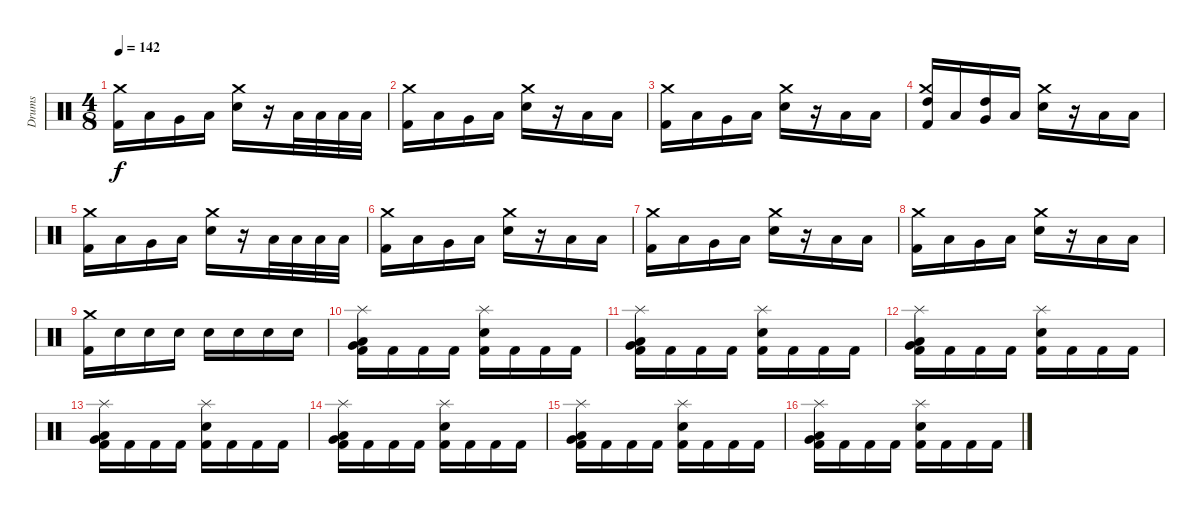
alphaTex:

\track ("Drums" "Drums") {instrument percussion}
\staff {score}
\articulation defaults
\ts (4 8)
\tempo 142
\clef neutral
\ks c
("Kick (hit) 2" "Crash medium (hit)").16{dy f} "Low Tom (hit)".16 "Very Low Tom (hit)".16 "Low Floor Tom (hit)".16 ("Electric Snare (hit)" "Crash medium (hit)").16 r.16 "Low Tom (hit)".32 "Low Tom (hit)".32 "Low Tom (hit)".32 "Low Tom (hit)".32 |
("Kick (hit) 2" "Crash medium (hit)").16 "Low Tom (hit)".16 "Very Low Tom (hit)".16 "Low Floor Tom (hit)".16 ("Electric Snare (hit)" "Crash medium (hit)").16 r.16 "Low Floor Tom (hit)".16 "Low Tom (hit)".16 |
("Kick (hit) 2" "Crash medium (hit)").16 "Low Tom (hit)".16 "Very Low Tom (hit)".16 "Low Floor Tom (hit)".16 ("Electric Snare (hit)" "Crash medium (hit)").16 r.16 "Low Floor Tom (hit)".16 "Low Tom (hit)".16 |
("Kick (hit) 2" "Crash medium (hit)" "High Tom (hit)").16 "Low Tom (hit)".16 ("Very Low Tom (hit)" "High Tom (hit)").16 "Low Floor Tom (hit)".16 ("Electric Snare (hit)" "Crash medium (hit)").16 r.16 "Low Floor Tom (hit)".16 "Low Tom (hit)".16 |
("Kick (hit) 2" "Crash medium (hit)").16 "Low Tom (hit)".16 "Very Low Tom (hit)".16 "Low Floor Tom (hit)".16 ("Electric Snare (hit)" "Crash medium (hit)").16 r.16 "Low Tom (hit)".32 "Low Tom (hit)".32 "Low Tom (hit)".32 "Low Tom (hit)".32 |
("Kick (hit) 2" "Crash medium (hit)").16 "Low Tom (hit)".16 "Very Low Tom (hit)".16 "Low Floor Tom (hit)".16 ("Electric Snare (hit)" "Crash medium (hit)").16 r.16 "Low Floor Tom (hit)".16 "Low Tom (hit)".16 |
("Kick (hit) 2" "Crash medium (hit)").16 "Low Tom (hit)".16 "Very Low Tom (hit)".16 "Low Floor Tom (hit)".16 ("Electric Snare (hit)" "Crash medium (hit)").16 r.16 "Low Floor Tom (hit)".16 "Low Tom (hit)".16 |
("Kick (hit) 2" "Crash medium (hit)").16 "Low Tom (hit)".16 "Very Low Tom (hit)".16 "Low Floor Tom (hit)".16 ("Electric Snare (hit)" "Crash medium (hit)").16 r.16 "Low Floor Tom (hit)".16 "Low Tom (hit)".16 |
("Kick (hit) 2" "Crash medium (hit)").16 "Electric Snare (hit)".16 "Electric Snare (hit)".16 "Electric Snare (hit)".16 "Electric Snare (hit)".16 "Electric Snare (hit)".16 "Electric Snare (hit)".16 "Electric Snare (hit)".16 |
("Kick (hit) 2" "Low Floor Tom (hit)" "Very Low Tom (hit)" "Splash (hit)").16 "Kick (hit) 2".16 "Kick (hit) 2".16 "Kick (hit) 2".16 ("Kick (hit) 2" "Electric Snare (hit)" "Splash (hit)").16 "Kick (hit) 2".16 "Kick (hit) 2".16 "Kick (hit) 2".16 |
("Kick (hit) 2" "Low Floor Tom (hit)" "Very Low Tom (hit)" "Splash (hit)").16 "Kick (hit) 2".16 "Kick (hit) 2".16 "Kick (hit) 2".16 ("Kick (hit) 2" "Electric Snare (hit)" "Splash (hit)").16 "Kick (hit) 2".16 "Kick (hit) 2".16 "Kick (hit) 2".16 |
("Kick (hit) 2" "Low Floor Tom (hit)" "Very Low Tom (hit)" "Splash (hit)").16 "Kick (hit) 2".16 "Kick (hit) 2".16 "Kick (hit) 2".16 ("Kick (hit) 2" "Electric Snare (hit)" "Splash (hit)").16 "Kick (hit) 2".16 "Kick (hit) 2".16 "Kick (hit) 2".16 |
("Kick (hit) 2" "Low Floor Tom (hit)" "Very Low Tom (hit)" "Splash (hit)").16 "Kick (hit) 2".16 "Kick (hit) 2".16 "Kick (hit) 2".16 ("Kick (hit) 2" "Electric Snare (hit)" "Splash (hit)").16 "Kick (hit) 2".16 "Kick (hit) 2".16 "Kick (hit) 2".16 |
("Kick (hit) 2" "Low Floor Tom (hit)" "Very Low Tom (hit)" "Splash (hit)").16 "Kick (hit) 2".16 "Kick (hit) 2".16 "Kick (hit) 2".16 ("Kick (hit) 2" "Electric Snare (hit)" "Splash (hit)").16 "Kick (hit) 2".16 "Kick (hit) 2".16 "Kick (hit) 2".16 |
("Kick (hit) 2" "Low Floor Tom (hit)" "Very Low Tom (hit)" "Splash (hit)").16 "Kick (hit) 2".16 "Kick (hit) 2".16 "Kick (hit) 2".16 ("Kick (hit) 2" "Electric Snare (hit)" "Splash (hit)").16 "Kick (hit) 2".16 "Kick (hit) 2".16 "Kick (hit) 2".16 |
("Kick (hit) 2" "Low Floor Tom (hit)" "Very Low Tom (hit)" "Splash (hit)").16 "Kick (hit) 2".16 "Kick (hit) 2".16 "Kick (hit) 2".16 ("Kick (hit) 2" "Electric Snare (hit)" "Splash (hit)").16 "Kick (hit) 2".16 "Kick (hit) 2".16 "Kick (hit) 2".16
